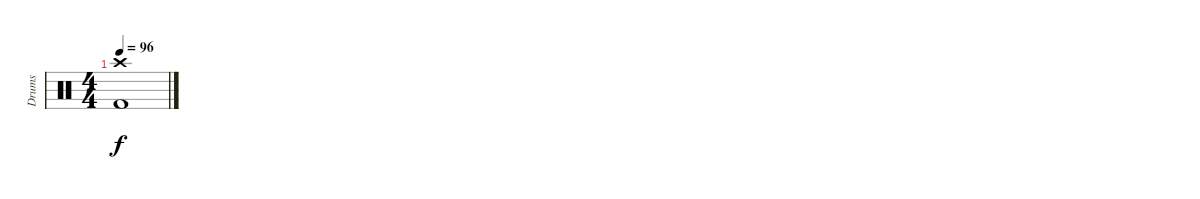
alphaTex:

\track ("Drums" "Drums") {instrument percussion}
\staff {score}
\articulation defaults
\ts (4 4)
\tempo 96
\clef neutral
\ks c
("Crash high (hit)" "Kick (hit) 2").1{dy f}
